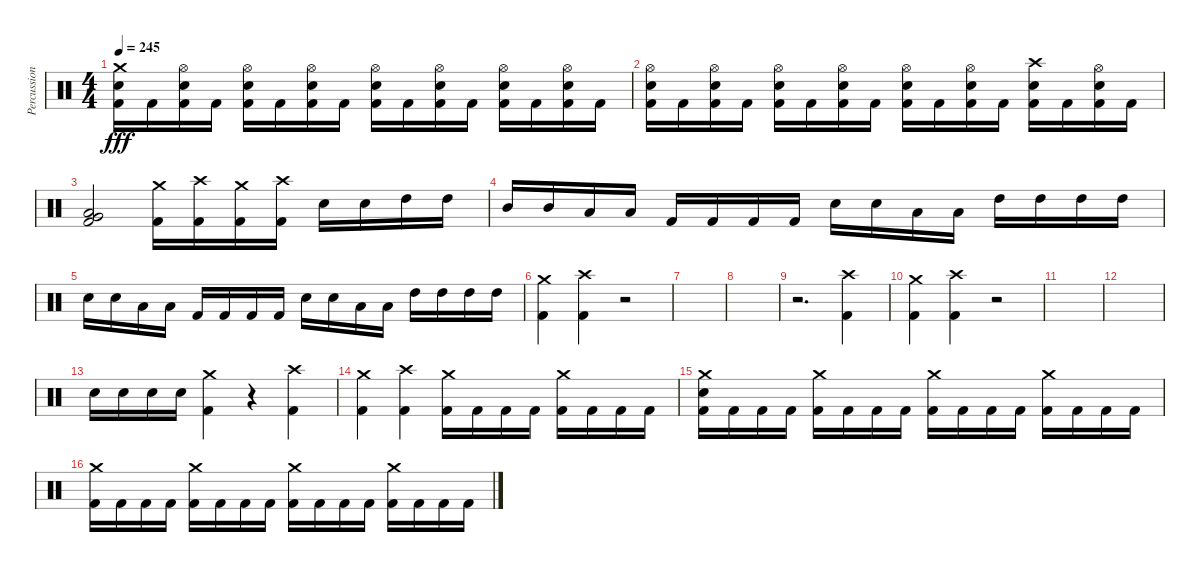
\track ("Percussion" "Percussion") {instrument percussion bank 177}
\staff {score}
\articulation defaults
\ts (4 4)
\tempo 245
\clef neutral
\ks c
("Crash medium (hit)" "Electric Snare (hit)" "Kick (hit) 2").16{dy fff} "Kick (hit) 2".16 ("Hi-Hat (open)" "Electric Snare (hit)" "Kick (hit) 2").16 "Kick (hit) 2".16 ("Hi-Hat (open)" "Electric Snare (hit)" "Kick (hit) 2").16 "Kick (hit) 2".16 ("Hi-Hat (open)" "Electric Snare (hit)" "Kick (hit) 2").16 "Kick (hit) 2".16 ("Hi-Hat (open)" "Electric Snare (hit)" "Kick (hit) 2").16 "Kick (hit) 2".16 ("Hi-Hat (open)" "Electric Snare (hit)" "Kick (hit) 2").16 "Kick (hit) 2".16 ("Hi-Hat (open)" "Electric Snare (hit)" "Kick (hit) 2").16 "Kick (hit) 2".16 ("Hi-Hat (open)" "Electric Snare (hit)" "Kick (hit) 2").16 "Kick (hit) 2".16 |
("Hi-Hat (open)" "Electric Snare (hit)" "Kick (hit) 2").16 "Kick (hit) 2".16 ("Hi-Hat (open)" "Electric Snare (hit)" "Kick (hit) 2").16 "Kick (hit) 2".16 ("Hi-Hat (open)" "Electric Snare (hit)" "Kick (hit) 2").16 "Kick (hit) 2".16 ("Hi-Hat (open)" "Electric Snare (hit)" "Kick (hit) 2").16 "Kick (hit) 2".16 ("Hi-Hat (open)" "Electric Snare (hit)" "Kick (hit) 2").16 "Kick (hit) 2".16 ("Hi-Hat (open)" "Electric Snare (hit)" "Kick (hit) 2").16 "Kick (hit) 2".16 ("Crash high (hit)" "Electric Snare (hit)" "Kick (hit) 2").16 "Kick (hit) 2".16 ("Hi-Hat (open)" "Electric Snare (hit)" "Kick (hit) 2").16 "Kick (hit) 2".16 |
("Low Tom (hit)" "Very Low Tom (hit)" "Kick (hit) 2").2 ("Crash medium (hit)" "Kick (hit) 2").16 ("Crash high (hit)" "Kick (hit) 2").16 ("Crash medium (hit)" "Kick (hit) 2").16 ("Crash high (hit)" "Kick (hit) 2").16 "Electric Snare (hit)".16 "Electric Snare (hit)".16 "High Tom (hit)".16 "High Tom (hit)".16 |
"Mid Tom (hit)".16 "Mid Tom (hit)".16 "Low Tom (hit)".16 "Low Tom (hit)".16 "Kick (hit) 2".16 "Kick (hit) 2".16 "Kick (hit) 2".16 "Kick (hit) 2".16 "Electric Snare (hit)".16 "Electric Snare (hit)".16 "Low Tom (hit)".16 "Low Tom (hit)".16 "High Tom (hit)".16 "High Tom (hit)".16 "High Tom (hit)".16 "High Tom (hit)".16 |
"Electric Snare (hit)".16 "Electric Snare (hit)".16 "Low Tom (hit)".16 "Low Tom (hit)".16 "Kick (hit) 2".16 "Kick (hit) 2".16 "Kick (hit) 2".16 "Kick (hit) 2".16 "Electric Snare (hit)".16 "Electric Snare (hit)".16 "Low Tom (hit)".16 "Low Tom (hit)".16 "High Tom (hit)".16 "High Tom (hit)".16 "High Tom (hit)".16 "High Tom (hit)".16 |
("Crash medium (hit)" "Kick (hit) 2").4 ("Crash high (hit)" "Kick (hit) 2").4 r.2 |
|
|
r.2{d} ("Crash high (hit)" "Kick (hit) 2").4 |
("Crash medium (hit)" "Kick (hit) 2").4 ("Crash high (hit)" "Kick (hit) 2").4 r.2 |
|
|
"Electric Snare (hit)".16 "Electric Snare (hit)".16 "Electric Snare (hit)".16 "Electric Snare (hit)".16 ("Crash medium (hit)" "Kick (hit) 2").4 r.4 ("Crash high (hit)" "Kick (hit) 2").4 |
("Crash medium (hit)" "Kick (hit) 2").4 ("Crash high (hit)" "Kick (hit) 2").4 ("Crash medium (hit)" "Kick (hit) 2").16 "Kick (hit) 2".16 "Kick (hit) 2".16 "Kick (hit) 2".16 ("Crash medium (hit)" "Kick (hit) 2").16 "Kick (hit) 2".16 "Kick (hit) 2".16 "Kick (hit) 2".16 |
("Crash medium (hit)" "Electric Snare (hit)" "Kick (hit) 2").16 "Kick (hit) 2".16 "Kick (hit) 2".16 "Kick (hit) 2".16 ("Crash medium (hit)" "Kick (hit) 2").16 "Kick (hit) 2".16 "Kick (hit) 2".16 "Kick (hit) 2".16 ("Crash medium (hit)" "Kick (hit) 2").16 "Kick (hit) 2".16 "Kick (hit) 2".16 "Kick (hit) 2".16 ("Crash medium (hit)" "Kick (hit) 2").16 "Kick (hit) 2".16 "Kick (hit) 2".16 "Kick (hit) 2".16 |
("Crash medium (hit)" "Kick (hit) 2").16 "Kick (hit) 2".16 "Kick (hit) 2".16 "Kick (hit) 2".16 ("Crash medium (hit)" "Kick (hit) 2").16 "Kick (hit) 2".16 "Kick (hit) 2".16 "Kick (hit) 2".16 ("Crash medium (hit)" "Kick (hit) 2").16 "Kick (hit) 2".16 "Kick (hit) 2".16 "Kick (hit) 2".16 ("Crash medium (hit)" "Kick (hit) 2").16 "Kick (hit) 2".16 "Kick (hit) 2".16 "Kick (hit) 2".16
